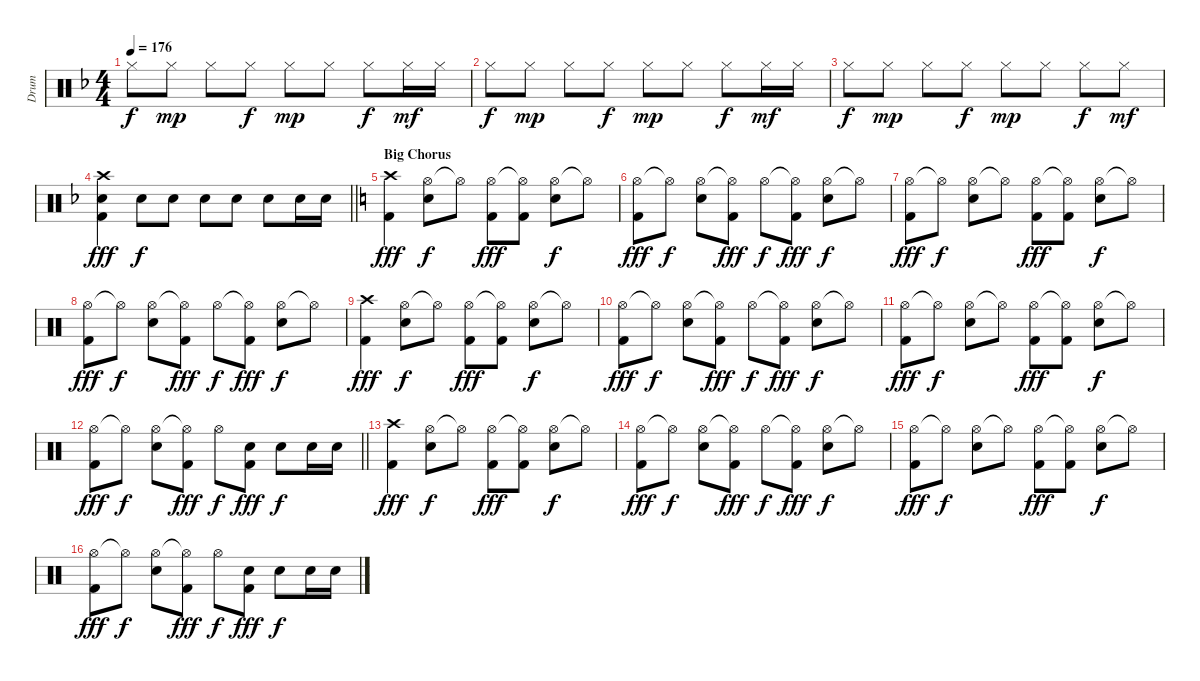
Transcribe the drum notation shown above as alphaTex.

\track ("Drum" "Drum") {instrument percussion}
\staff {score}
\articulation defaults
\ts (4 4)
\tempo 176
\clef neutral
\ks f "Hi-Hat (closed)".8{dy f} "Hi-Hat (closed)".8{dy mp} "Hi-Hat (closed)".8 "Hi-Hat (closed)".8{dy f} "Hi-Hat (closed)".8{dy mp} "Hi-Hat (closed)".8 "Hi-Hat (closed)".8{dy f} "Hi-Hat (closed)".16{dy mf} "Hi-Hat (closed)".16
|
"Hi-Hat (closed)".8{dy f} "Hi-Hat (closed)".8{dy mp} "Hi-Hat (closed)".8 "Hi-Hat (closed)".8{dy f} "Hi-Hat (closed)".8{dy mp} "Hi-Hat (closed)".8 "Hi-Hat (closed)".8{dy f} "Hi-Hat (closed)".16{dy mf} "Hi-Hat (closed)".16 |
"Hi-Hat (closed)".8{dy f} "Hi-Hat (closed)".8{dy mp} "Hi-Hat (closed)".8 "Hi-Hat (closed)".8{dy f} "Hi-Hat (closed)".8{dy mp} "Hi-Hat (closed)".8 "Hi-Hat (closed)".8{dy f} "Hi-Hat (closed)".8{dy mf} |
\barLineRight lightlight
("Crash high (hit)" "Snare (hit) 2" "Kick (hit) 2").4{dy fff} "Snare (hit) 2".8{dy f} "Snare (hit) 2".8 "Snare (hit) 2".8 "Snare (hit) 2".8 "Snare (hit) 2".8 "Snare (hit) 2".16 "Snare (hit) 2".16 |
\section ("" "Big Chorus")
\ks c
("Crash high (hit)" "Kick (hit) 2").4{dy fff} ("Hi-Hat (open)" "Snare (hit) 2").8{dy f} "Hi-Hat (open)"{t}.8 ("Hi-Hat (open)" "Kick (hit) 2").8{dy fff} ("Hi-Hat (open)"{t} "Kick (hit) 2").8 ("Hi-Hat (open)" "Snare (hit) 2").8{dy f} "Hi-Hat (open)"{t}.8 |
("Hi-Hat (open)" "Kick (hit) 2").8{dy fff} "Hi-Hat (open)"{t}.8{dy f} ("Hi-Hat (open)" "Snare (hit) 2").8 ("Hi-Hat (open)"{t} "Kick (hit) 2").8{dy fff} "Hi-Hat (open)".8{dy f} ("Hi-Hat (open)"{t} "Kick (hit) 2").8{dy fff} ("Hi-Hat (open)" "Snare (hit) 2").8{dy f} "Hi-Hat (open)"{t}.8 |
("Hi-Hat (open)" "Kick (hit) 2").8{dy fff} "Hi-Hat (open)"{t}.8{dy f} ("Hi-Hat (open)" "Snare (hit) 2").8 "Hi-Hat (open)"{t}.8 ("Hi-Hat (open)" "Kick (hit) 2").8{dy fff} ("Hi-Hat (open)"{t} "Kick (hit) 2").8 ("Hi-Hat (open)" "Snare (hit) 2").8{dy f} "Hi-Hat (open)"{t}.8 |
("Hi-Hat (open)" "Kick (hit) 2").8{dy fff} "Hi-Hat (open)"{t}.8{dy f} ("Hi-Hat (open)" "Snare (hit) 2").8 ("Hi-Hat (open)"{t} "Kick (hit) 2").8{dy fff} "Hi-Hat (open)".8{dy f} ("Hi-Hat (open)"{t} "Kick (hit) 2").8{dy fff} ("Hi-Hat (open)" "Snare (hit) 2").8{dy f} "Hi-Hat (open)"{t}.8 |
("Crash high (hit)" "Kick (hit) 2").4{dy fff} ("Hi-Hat (open)" "Snare (hit) 2").8{dy f} "Hi-Hat (open)"{t}.8 ("Hi-Hat (open)" "Kick (hit) 2").8{dy fff} ("Hi-Hat (open)"{t} "Kick (hit) 2").8 ("Hi-Hat (open)" "Snare (hit) 2").8{dy f} "Hi-Hat (open)"{t}.8 |
("Hi-Hat (open)" "Kick (hit) 2").8{dy fff} "Hi-Hat (open)"{t}.8{dy f} ("Hi-Hat (open)" "Snare (hit) 2").8 ("Hi-Hat (open)"{t} "Kick (hit) 2").8{dy fff} "Hi-Hat (open)".8{dy f} ("Hi-Hat (open)"{t} "Kick (hit) 2").8{dy fff} ("Hi-Hat (open)" "Snare (hit) 2").8{dy f} "Hi-Hat (open)"{t}.8 |
("Hi-Hat (open)" "Kick (hit) 2").8{dy fff} "Hi-Hat (open)"{t}.8{dy f} ("Hi-Hat (open)" "Snare (hit) 2").8 "Hi-Hat (open)"{t}.8 ("Hi-Hat (open)" "Kick (hit) 2").8{dy fff} ("Hi-Hat (open)"{t} "Kick (hit) 2").8 ("Hi-Hat (open)" "Snare (hit) 2").8{dy f} "Hi-Hat (open)"{t}.8 |
\barLineRight lightlight
("Hi-Hat (open)" "Kick (hit) 2").8{dy fff} "Hi-Hat (open)"{t}.8{dy f} ("Hi-Hat (open)" "Snare (hit) 2").8 ("Hi-Hat (open)"{t} "Kick (hit) 2").8{dy fff} "Hi-Hat (open)".8{dy f} ("Snare (hit) 2" "Kick (hit) 2").8{dy fff} "Snare (hit) 2".8{dy f} "Snare (hit) 2".16 "Snare (hit) 2".16 |
("Crash high (hit)" "Kick (hit) 2").4{dy fff} ("Hi-Hat (open)" "Snare (hit) 2").8{dy f} "Hi-Hat (open)"{t}.8 ("Hi-Hat (open)" "Kick (hit) 2").8{dy fff} ("Hi-Hat (open)"{t} "Kick (hit) 2").8 ("Hi-Hat (open)" "Snare (hit) 2").8{dy f} "Hi-Hat (open)"{t}.8 |
("Hi-Hat (open)" "Kick (hit) 2").8{dy fff} "Hi-Hat (open)"{t}.8{dy f} ("Hi-Hat (open)" "Snare (hit) 2").8 ("Hi-Hat (open)"{t} "Kick (hit) 2").8{dy fff} "Hi-Hat (open)".8{dy f} ("Hi-Hat (open)"{t} "Kick (hit) 2").8{dy fff} ("Hi-Hat (open)" "Snare (hit) 2").8{dy f} "Hi-Hat (open)"{t}.8 |
("Hi-Hat (open)" "Kick (hit) 2").8{dy fff} "Hi-Hat (open)"{t}.8{dy f} ("Hi-Hat (open)" "Snare (hit) 2").8 "Hi-Hat (open)"{t}.8 ("Hi-Hat (open)" "Kick (hit) 2").8{dy fff} ("Hi-Hat (open)"{t} "Kick (hit) 2").8 ("Hi-Hat (open)" "Snare (hit) 2").8{dy f} "Hi-Hat (open)"{t}.8 |
("Hi-Hat (open)" "Kick (hit) 2").8{dy fff} "Hi-Hat (open)"{t}.8{dy f} ("Hi-Hat (open)" "Snare (hit) 2").8 ("Hi-Hat (open)"{t} "Kick (hit) 2").8{dy fff} "Hi-Hat (open)".8{dy f} ("Snare (hit) 2" "Kick (hit) 2").8{dy fff} "Snare (hit) 2".8{dy f} "Snare (hit) 2".16 "Snare (hit) 2".16
